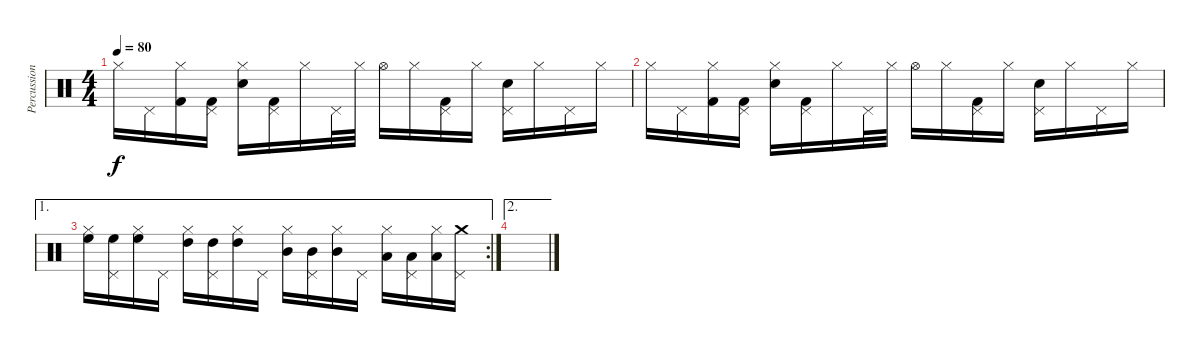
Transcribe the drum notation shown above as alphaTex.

\track ("Percussions" "Percussion") {instrument percussion}
\staff {score}
\articulation defaults
\ts (4 4)
\tempo 80
\clef neutral
\ks c "Hi-Hat (closed)".16{dy f} "Pedal Hi-Hat (hit)".16
("Hi-Hat (closed)" "Kick (hit) 2").16 ("Pedal Hi-Hat (hit)" "Kick (hit) 2").16 ("Hi-Hat (closed)" "Electric Snare (hit)").16 ("Pedal Hi-Hat (hit)" "Kick (hit) 2").16 "Hi-Hat (closed)".16 "Pedal Hi-Hat (hit)".32 "Hi-Hat (closed)".32 "Hi-Hat (open)".16 "Hi-Hat (closed)".16 ("Pedal Hi-Hat (hit)" "Kick (hit) 2").16 "Hi-Hat (closed)".16 ("Pedal Hi-Hat (hit)" "Electric Snare (hit)").16 "Hi-Hat (closed)".16 "Pedal Hi-Hat (hit)".16 "Hi-Hat (closed)".16 |
"Hi-Hat (closed)".16 "Pedal Hi-Hat (hit)".16 ("Hi-Hat (closed)" "Kick (hit) 2").16 ("Pedal Hi-Hat (hit)" "Kick (hit) 2").16 ("Hi-Hat (closed)" "Electric Snare (hit)").16 ("Pedal Hi-Hat (hit)" "Kick (hit) 2").16 "Hi-Hat (closed)".16 "Pedal Hi-Hat (hit)".32 "Hi-Hat (closed)".32 "Hi-Hat (open)".16 "Hi-Hat (closed)".16 ("Pedal Hi-Hat (hit)" "Kick (hit) 2").16 "Hi-Hat (closed)".16 ("Pedal Hi-Hat (hit)" "Electric Snare (hit)").16 "Hi-Hat (closed)".16 "Pedal Hi-Hat (hit)".16 "Hi-Hat (closed)".16 |
\ae 1
\rc 2
("Hi-Hat (closed)" "High Floor Tom (hit)").16 ("Pedal Hi-Hat (hit)" "High Floor Tom (hit)").16 ("Hi-Hat (closed)" "High Floor Tom (hit)").16 "Pedal Hi-Hat (hit)".16 ("Hi-Hat (closed)" "High Tom (hit)").16 ("Pedal Hi-Hat (hit)" "High Tom (hit)").16 ("Hi-Hat (closed)" "High Tom (hit)").16 "Pedal Hi-Hat (hit)".16 ("Hi-Hat (closed)" "Mid Tom (hit)").16 ("Pedal Hi-Hat (hit)" "Mid Tom (hit)").16 ("Hi-Hat (closed)" "Mid Tom (hit)").16 "Pedal Hi-Hat (hit)".16 ("Hi-Hat (closed)" "Low Tom (hit)").16 ("Pedal Hi-Hat (hit)" "Low Tom (hit)").16 ("Hi-Hat (closed)" "Low Tom (hit)").16 ("Pedal Hi-Hat (hit)" "Crash medium (hit)").16 |
\ae 2
